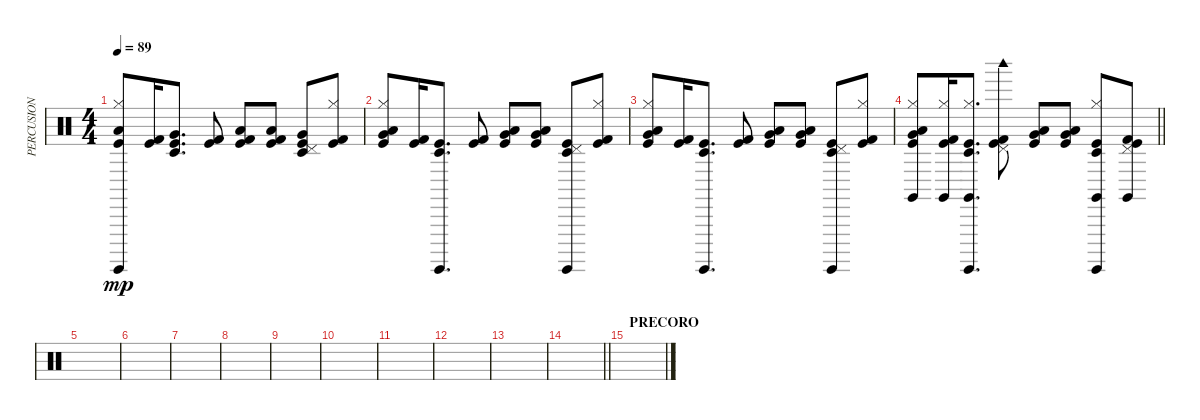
\track ("PERCUSION" "PERCUSION") {instrument percussion}
\staff {score}
\articulation defaults
\ts (4 4)
\tempo 89
\clef neutral
\ks c
("Kick (hit)" "Hi-Hat (closed)" "Surdo (hit)" "Low Floor Tom (hit)").8{dy mp} ("Kick (hit)" "Kick (hit) 2").16 ("Kick (hit)" "Very Low Tom (hit)" "Timbale low (hit)").8{d} ("Kick (hit)" "Kick (hit) 2").8 ("Kick (hit)" "Kick (hit) 2" "Low Floor Tom (hit)").8 ("Kick (hit)" "Kick (hit) 2" "Low Floor Tom (hit)").8 ("Kick (hit)" "Pedal Hi-Hat (hit)" "Very Low Tom (hit)" "Timbale low (hit)").8 ("Kick (hit)" "Hi-Hat (closed)" "Kick (hit) 2").8 |
("Kick (hit)" "Hi-Hat (closed)" "Very Low Tom (hit)" "Low Floor Tom (hit)").8 ("Kick (hit)" "Kick (hit) 2").16 ("Kick (hit)" "Surdo (hit)" "Timbale low (hit)").8{d} ("Kick (hit)" "Kick (hit) 2").8 ("Kick (hit)" "Very Low Tom (hit)" "Low Floor Tom (hit)").8 ("Kick (hit)" "Very Low Tom (hit)" "Low Floor Tom (hit)").8 ("Kick (hit)" "Pedal Hi-Hat (hit)" "Surdo (hit)" "Timbale low (hit)").8 ("Kick (hit)" "Hi-Hat (closed)" "Kick (hit) 2").8 |
("Kick (hit)" "Hi-Hat (closed)" "Very Low Tom (hit)" "Low Floor Tom (hit)").8 ("Kick (hit)" "Kick (hit) 2").16 ("Kick (hit)" "Surdo (hit)" "Timbale low (hit)").8{d} ("Kick (hit)" "Kick (hit) 2").8 ("Kick (hit)" "Very Low Tom (hit)" "Low Floor Tom (hit)").8 ("Kick (hit)" "Very Low Tom (hit)" "Low Floor Tom (hit)").8 ("Kick (hit)" "Pedal Hi-Hat (hit)" "Surdo (hit)" "Timbale low (hit)").8 ("Kick (hit)" "Hi-Hat (closed)" "Kick (hit) 2").8 |
\barLineRight lightlight
("Kick (hit)" "Claves (hit)" "Hi-Hat (closed)" "Very Low Tom (hit)" "Low Floor Tom (hit)").8 ("Kick (hit)" "Claves (hit)" "Hi-Hat (closed)" "Kick (hit) 2").16 ("Kick (hit)" "Claves (hit)" "Hi-Hat (closed)" "Surdo (hit)" "Timbale low (hit)").8{d} ("Kick (hit)" "Woodblock high (hit)" "Pedal Hi-Hat (hit)" "Kick (hit) 2").8 ("Kick (hit)" "Very Low Tom (hit)" "Low Floor Tom (hit)").8 ("Kick (hit)" "Very Low Tom (hit)" "Low Floor Tom (hit)").8 ("Kick (hit)" "Claves (hit)" "Hi-Hat (closed)" "Surdo (hit)" "Timbale low (hit)").8 ("Kick (hit)" "Claves (hit)" "Pedal Hi-Hat (hit)" "Kick (hit) 2").8 |
\section ("" "")
|
|
|
|
|
|
|
|
|
\barLineRight lightlight
|
\section ("" "PRECORO")
